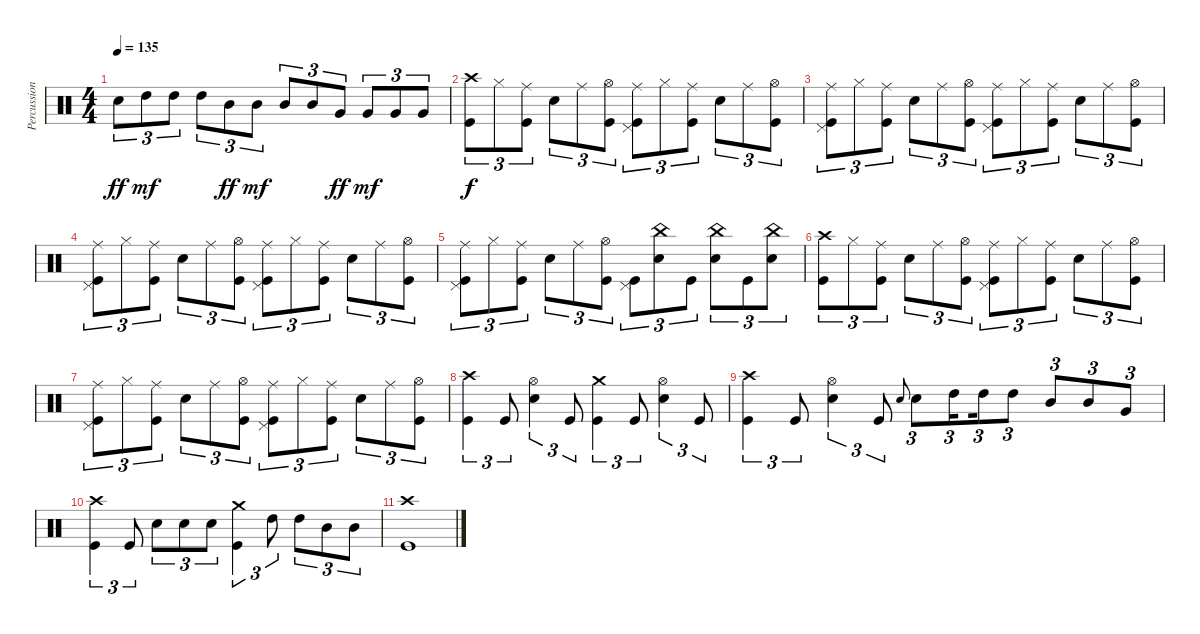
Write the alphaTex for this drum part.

\track ("Percussion" "Percussion") {instrument percussion}
\staff {score}
\articulation defaults
\ts (4 4)
\tempo 135
\clef neutral
\ks c "Snare (hit) 2".8{tu (3 2) dy ff} "High Tom (hit)".8{tu (3 2) dy mf} "High Tom (hit)".8{tu (3 2)} "High Tom (hit)".8{tu (3 2)} "Mid Tom (hit)".8{tu (3 2) dy ff} "Mid Tom (hit)".8{tu (3 2) dy mf} "Mid Tom (hit)".8{tu (3 2)} "Mid Tom (hit)".8{tu (3 2)} "Very Low Tom (hit)".8{tu (3 2) dy ff} "Very Low Tom (hit)".8{tu (3 2) dy mf} "Very Low Tom (hit)".8{tu (3 2)} "Very Low Tom (hit)".8{tu (3 2)}
|
("Crash high (hit)" "Kick (hit)").8{tu (3 2) dy f} "Hi-Hat (closed)".8{tu (3 2)} ("Ride (middle)" "Kick (hit)").8{tu (3 2)} "Snare (hit) 2".8{tu (3 2)} "Ride (middle)".8{tu (3 2)} ("Hi-Hat (open)" "Kick (hit)").8{tu (3 2)} ("Ride (middle)" "Pedal Hi-Hat (hit)" "Kick (hit)").8{tu (3 2)} "Hi-Hat (closed)".8{tu (3 2)} ("Ride (middle)" "Kick (hit)").8{tu (3 2)} "Snare (hit) 2".8{tu (3 2)} "Ride (middle)".8{tu (3 2)} ("Hi-Hat (open)" "Kick (hit)").8{tu (3 2)} |
("Ride (middle)" "Pedal Hi-Hat (hit)" "Kick (hit)").8{tu (3 2)} "Hi-Hat (closed)".8{tu (3 2)} ("Ride (middle)" "Kick (hit)").8{tu (3 2)} "Snare (hit) 2".8{tu (3 2)} "Ride (middle)".8{tu (3 2)} ("Hi-Hat (open)" "Kick (hit)").8{tu (3 2)} ("Ride (middle)" "Pedal Hi-Hat (hit)" "Kick (hit)").8{tu (3 2)} "Hi-Hat (closed)".8{tu (3 2)} ("Ride (middle)" "Kick (hit)").8{tu (3 2)} "Snare (hit) 2".8{tu (3 2)} "Ride (middle)".8{tu (3 2)} ("Hi-Hat (open)" "Kick (hit)").8{tu (3 2)} |
("Ride (middle)" "Pedal Hi-Hat (hit)" "Kick (hit)").8{tu (3 2)} "Hi-Hat (closed)".8{tu (3 2)} ("Ride (middle)" "Kick (hit)").8{tu (3 2)} "Snare (hit) 2".8{tu (3 2)} "Ride (middle)".8{tu (3 2)} ("Hi-Hat (open)" "Kick (hit)").8{tu (3 2)} ("Ride (middle)" "Pedal Hi-Hat (hit)" "Kick (hit)").8{tu (3 2)} "Hi-Hat (closed)".8{tu (3 2)} ("Ride (middle)" "Kick (hit)").8{tu (3 2)} "Snare (hit) 2".8{tu (3 2)} "Ride (middle)".8{tu (3 2)} ("Hi-Hat (open)" "Kick (hit)").8{tu (3 2)} |
("Ride (middle)" "Pedal Hi-Hat (hit)" "Kick (hit)").8{tu (3 2)} "Hi-Hat (closed)".8{tu (3 2)} ("Ride (middle)" "Kick (hit)").8{tu (3 2)} "Snare (hit) 2".8{tu (3 2)} "Ride (middle)".8{tu (3 2)} ("Hi-Hat (open)" "Kick (hit)").8{tu (3 2)} ("Pedal Hi-Hat (hit)" "Kick (hit)").8{tu (3 2)} ("China (hit)" "Snare (hit) 2").8{tu (3 2)} "Kick (hit)".8{tu (3 2)} ("China (hit)" "Snare (hit) 2").8{tu (3 2)} "Kick (hit)".8{tu (3 2)} ("China (hit)" "Snare (hit) 2").8{tu (3 2)} |
("Crash high (hit)" "Kick (hit)").8{tu (3 2)} "Hi-Hat (closed)".8{tu (3 2)} ("Ride (middle)" "Kick (hit)").8{tu (3 2)} "Snare (hit) 2".8{tu (3 2)} "Ride (middle)".8{tu (3 2)} ("Hi-Hat (open)" "Kick (hit)").8{tu (3 2)} ("Ride (middle)" "Pedal Hi-Hat (hit)" "Kick (hit)").8{tu (3 2)} "Hi-Hat (closed)".8{tu (3 2)} ("Ride (middle)" "Kick (hit)").8{tu (3 2)} "Snare (hit) 2".8{tu (3 2)} "Ride (middle)".8{tu (3 2)} ("Hi-Hat (open)" "Kick (hit)").8{tu (3 2)} |
("Ride (middle)" "Pedal Hi-Hat (hit)" "Kick (hit)").8{tu (3 2)} "Hi-Hat (closed)".8{tu (3 2)} ("Ride (middle)" "Kick (hit)").8{tu (3 2)} "Snare (hit) 2".8{tu (3 2)} "Ride (middle)".8{tu (3 2)} ("Hi-Hat (open)" "Kick (hit)").8{tu (3 2)} ("Ride (middle)" "Pedal Hi-Hat (hit)" "Kick (hit)").8{tu (3 2)} "Hi-Hat (closed)".8{tu (3 2)} ("Ride (middle)" "Kick (hit)").8{tu (3 2)} "Snare (hit) 2".8{tu (3 2)} "Ride (middle)".8{tu (3 2)} ("Hi-Hat (open)" "Kick (hit)").8{tu (3 2)} |
("Crash high (hit)" "Kick (hit)").4{tu (3 2)} "Kick (hit)".8{tu (3 2)} ("Hi-Hat (open)" "Snare (hit) 2").4{tu (3 2)} "Kick (hit)".8{tu (3 2)} ("Crash medium (hit)" "Kick (hit)").4{tu (3 2)} "Kick (hit)".8{tu (3 2)} ("Hi-Hat (open)" "Snare (hit) 2").4{tu (3 2)} "Kick (hit)".8{tu (3 2)} |
("Crash high (hit)" "Kick (hit)").4{tu (3 2)} "Kick (hit)".8{tu (3 2)} ("Hi-Hat (open)" "Snare (hit) 2").4{tu (3 2)} "Kick (hit)".8{tu (3 2)} "Snare (hit) 2".8{gr onbeat} "Snare (hit) 2".8{tu (3 2)} "High Tom (hit)".16{tu (3 2) beam splitsecondary} "High Tom (hit)".16{tu (3 2)} "High Tom (hit)".8{tu (3 2)} "Mid Tom (hit)".8{tu (3 2)} "Mid Tom (hit)".8{tu (3 2)} "Very Low Tom (hit)".8{tu (3 2)} |
("Crash high (hit)" "Kick (hit)").4{tu (3 2)} "Kick (hit)".8{tu (3 2)} "Snare (hit) 2".8{tu (3 2)} "Snare (hit) 2".8{tu (3 2)} "Snare (hit) 2".8{tu (3 2)} ("Crash medium (hit)" "Kick (hit)").4{tu (3 2)} "High Tom (hit)".8{tu (3 2)} "High Tom (hit)".8{tu (3 2)} "Mid Tom (hit)".8{tu (3 2)} "Mid Tom (hit)".8{tu (3 2)} |
("Crash high (hit)" "Kick (hit)").1
